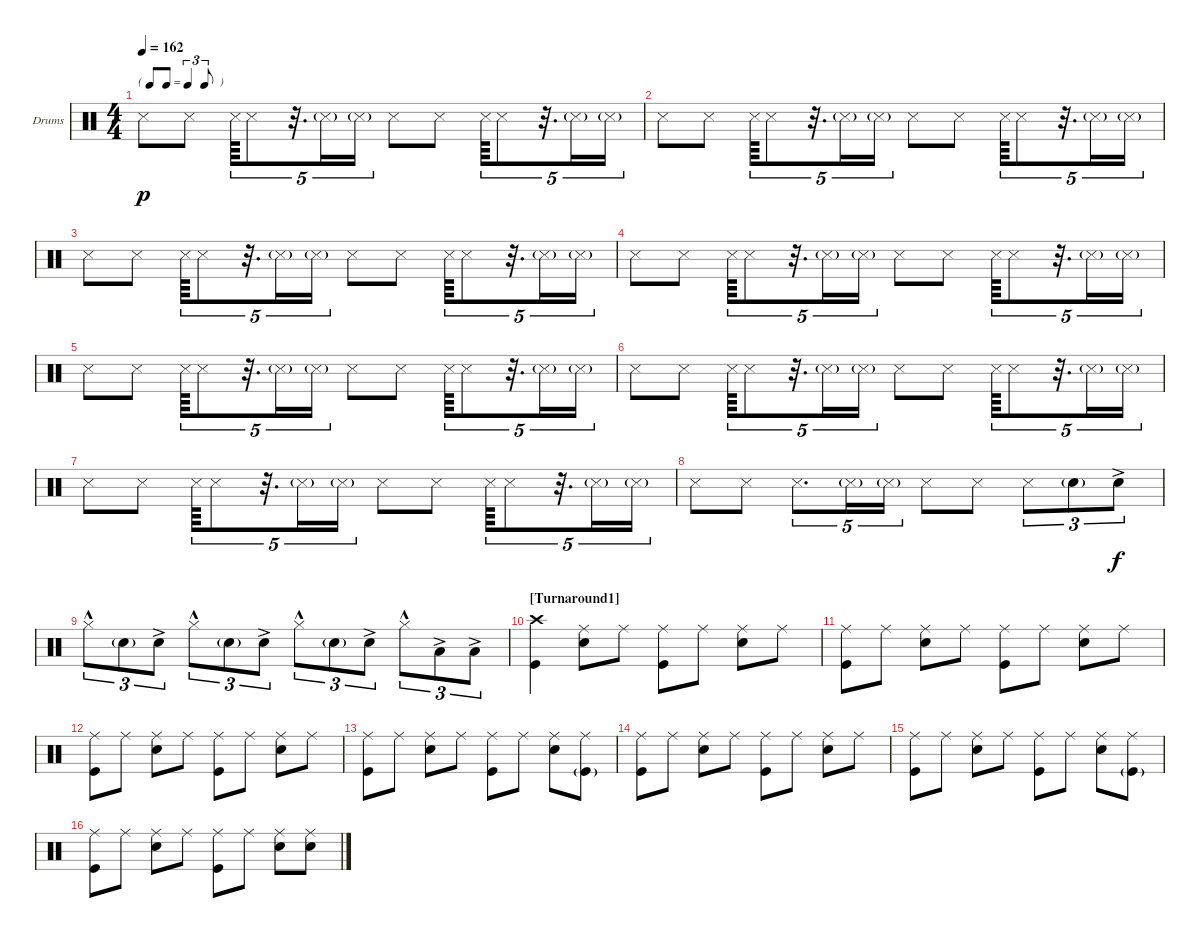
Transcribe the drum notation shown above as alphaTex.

\bracketExtendMode groupsimilarinstruments
\firstSystemTrackNameOrientation horizontal
\otherSystemsTrackNameOrientation horizontal
\track ("Drumkit" "Drums") {instrument percussion}
\staff {score}
\articulation defaults
\ts (4 4)
\tf triplet8th
\tempo 162
\clef neutral
\ks c "Snare (side stick) 3".8{dy p} "Snare (side stick) 3".8 "Snare (side stick) 3".64{tu (5 4)} "Snare (side stick) 3".8{tu (5 4)}
r.32{d tu (5 4)} "Snare (side stick) 3"{g}.16{tu (5 4)} "Snare (side stick) 3"{g}.16{tu (5 4)} "Snare (side stick) 3".8 "Snare (side stick) 3".8 "Snare (side stick) 3".64{tu (5 4)} "Snare (side stick) 3".8{tu (5 4)} r.32{d tu (5 4)} "Snare (side stick) 3"{g}.16{tu (5 4)} "Snare (side stick) 3"{g}.16{tu (5 4)} |
"Snare (side stick) 3".8 "Snare (side stick) 3".8 "Snare (side stick) 3".64{tu (5 4)} "Snare (side stick) 3".8{tu (5 4)} r.32{d tu (5 4)} "Snare (side stick) 3"{g}.16{tu (5 4)} "Snare (side stick) 3"{g}.16{tu (5 4)} "Snare (side stick) 3".8 "Snare (side stick) 3".8 "Snare (side stick) 3".64{tu (5 4)} "Snare (side stick) 3".8{tu (5 4)} r.32{d tu (5 4)} "Snare (side stick) 3"{g}.16{tu (5 4)} "Snare (side stick) 3"{g}.16{tu (5 4)} |
"Snare (side stick) 3".8 "Snare (side stick) 3".8 "Snare (side stick) 3".64{tu (5 4)} "Snare (side stick) 3".8{tu (5 4)} r.32{d tu (5 4)} "Snare (side stick) 3"{g}.16{tu (5 4)} "Snare (side stick) 3"{g}.16{tu (5 4)} "Snare (side stick) 3".8 "Snare (side stick) 3".8 "Snare (side stick) 3".64{tu (5 4)} "Snare (side stick) 3".8{tu (5 4)} r.32{d tu (5 4)} "Snare (side stick) 3"{g}.16{tu (5 4)} "Snare (side stick) 3"{g}.16{tu (5 4)} |
"Snare (side stick) 3".8 "Snare (side stick) 3".8 "Snare (side stick) 3".64{tu (5 4)} "Snare (side stick) 3".8{tu (5 4)} r.32{d tu (5 4)} "Snare (side stick) 3"{g}.16{tu (5 4)} "Snare (side stick) 3"{g}.16{tu (5 4)} "Snare (side stick) 3".8 "Snare (side stick) 3".8 "Snare (side stick) 3".64{tu (5 4)} "Snare (side stick) 3".8{tu (5 4)} r.32{d tu (5 4)} "Snare (side stick) 3"{g}.16{tu (5 4)} "Snare (side stick) 3"{g}.16{tu (5 4)} |
"Snare (side stick) 3".8 "Snare (side stick) 3".8 "Snare (side stick) 3".64{tu (5 4)} "Snare (side stick) 3".8{tu (5 4)} r.32{d tu (5 4)} "Snare (side stick) 3"{g}.16{tu (5 4)} "Snare (side stick) 3"{g}.16{tu (5 4)} "Snare (side stick) 3".8 "Snare (side stick) 3".8 "Snare (side stick) 3".64{tu (5 4)} "Snare (side stick) 3".8{tu (5 4)} r.32{d tu (5 4)} "Snare (side stick) 3"{g}.16{tu (5 4)} "Snare (side stick) 3"{g}.16{tu (5 4)} |
"Snare (side stick) 3".8 "Snare (side stick) 3".8 "Snare (side stick) 3".64{tu (5 4)} "Snare (side stick) 3".8{tu (5 4)} r.32{d tu (5 4)} "Snare (side stick) 3"{g}.16{tu (5 4)} "Snare (side stick) 3"{g}.16{tu (5 4)} "Snare (side stick) 3".8 "Snare (side stick) 3".8 "Snare (side stick) 3".64{tu (5 4)} "Snare (side stick) 3".8{tu (5 4)} r.32{d tu (5 4)} "Snare (side stick) 3"{g}.16{tu (5 4)} "Snare (side stick) 3"{g}.16{tu (5 4)} |
"Snare (side stick) 3".8 "Snare (side stick) 3".8 "Snare (side stick) 3".64{tu (5 4)} "Snare (side stick) 3".8{tu (5 4)} r.32{d tu (5 4)} "Snare (side stick) 3"{g}.16{tu (5 4)} "Snare (side stick) 3"{g}.16{tu (5 4)} "Snare (side stick) 3".8 "Snare (side stick) 3".8 "Snare (side stick) 3".64{tu (5 4)} "Snare (side stick) 3".8{tu (5 4)} r.32{d tu (5 4)} "Snare (side stick) 3"{g}.16{tu (5 4)} "Snare (side stick) 3"{g}.16{tu (5 4)} |
"Snare (side stick) 3".8 "Snare (side stick) 3".8 "Snare (side stick) 3".8{d tu (5 4)} "Snare (side stick) 3"{g}.16{tu (5 4)} "Snare (side stick) 3"{g}.16{tu (5 4)} "Snare (side stick) 3".8 "Snare (side stick) 3".8 "Snare (side stick) 3".8{tu (3 2)} "Snare (hit) 2"{g}.8{tu (3 2)} "Snare (hit) 2"{ac}.8{tu (3 2) dy f} |
"Hi-Hat (closed)"{hac}.8{tu (3 2)} "Snare (hit) 2"{g}.8{tu (3 2)} "Snare (hit) 2"{ac}.8{tu (3 2)} "Hi-Hat (closed)"{hac}.8{tu (3 2)} "Snare (hit) 2"{g}.8{tu (3 2)} "Snare (hit) 2"{ac}.8{tu (3 2)} "Hi-Hat (closed)"{hac}.8{tu (3 2)} "Snare (hit) 2"{g}.8{tu (3 2)} "Snare (hit) 2"{ac}.8{tu (3 2)} "Hi-Hat (closed)"{hac}.8{tu (3 2)} "Low Tom (hit)"{ac}.8{tu (3 2)} "Low Tom (hit)"{ac}.8{tu (3 2)} |
\section ("" "[Turnaround1]")
("Kick (hit)" "Crash high (hit)").4 ("Snare (hit) 2" "Ride (middle)").8 "Ride (middle)".8 ("Kick (hit)" "Ride (middle)").8 "Ride (middle)".8 ("Snare (hit) 2" "Ride (middle)").8 "Ride (middle)".8 |
("Kick (hit)" "Ride (middle)").8 "Ride (middle)".8 ("Snare (hit) 2" "Ride (middle)").8 "Ride (middle)".8 ("Kick (hit)" "Ride (middle)").8 "Ride (middle)".8 ("Snare (hit) 2" "Ride (middle)").8 "Ride (middle)".8 |
("Kick (hit)" "Ride (middle)").8 "Ride (middle)".8 ("Snare (hit) 2" "Ride (middle)").8 "Ride (middle)".8 ("Kick (hit)" "Ride (middle)").8 "Ride (middle)".8 ("Snare (hit) 2" "Ride (middle)").8 "Ride (middle)".8 |
("Kick (hit)" "Ride (middle)").8 "Ride (middle)".8 ("Snare (hit) 2" "Ride (middle)").8 "Ride (middle)".8 ("Kick (hit)" "Ride (middle)").8 "Ride (middle)".8 ("Snare (hit) 2" "Ride (middle)").8 ("Ride (middle)" "Kick (hit)"{g}).8 |
("Kick (hit)" "Ride (middle)").8 "Ride (middle)".8 ("Snare (hit) 2" "Ride (middle)").8 "Ride (middle)".8 ("Kick (hit)" "Ride (middle)").8 "Ride (middle)".8 ("Snare (hit) 2" "Ride (middle)").8 "Ride (middle)".8 |
("Kick (hit)" "Ride (middle)").8 "Ride (middle)".8 ("Snare (hit) 2" "Ride (middle)").8 "Ride (middle)".8 ("Kick (hit)" "Ride (middle)").8 "Ride (middle)".8 ("Snare (hit) 2" "Ride (middle)").8 ("Ride (middle)" "Kick (hit)"{g}).8 |
("Kick (hit)" "Ride (middle)").8 "Ride (middle)".8 ("Snare (hit) 2" "Ride (middle)").8 "Ride (middle)".8 ("Kick (hit)" "Ride (middle)").8 "Ride (middle)".8 ("Snare (hit) 2" "Ride (middle)").8 ("Ride (middle)" "Snare (hit) 2").8
